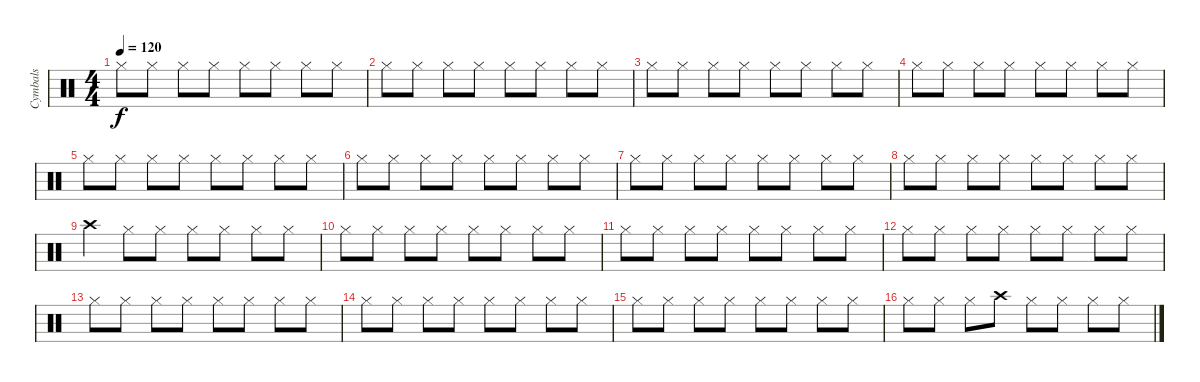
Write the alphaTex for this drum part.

\track ("Cymbals" "Cymbals") {instrument percussion}
\staff {score}
\articulation defaults
\ts (4 4)
\tempo 120
\clef neutral
\ks c "Hi-Hat (closed)".8{dy f} "Hi-Hat (closed)".8 "Hi-Hat (closed)".8 "Hi-Hat (closed)".8 "Hi-Hat (closed)".8 "Hi-Hat (closed)".8 "Hi-Hat (closed)".8 "Hi-Hat (closed)".8
|
"Hi-Hat (closed)".8 "Hi-Hat (closed)".8 "Hi-Hat (closed)".8 "Hi-Hat (closed)".8 "Hi-Hat (closed)".8 "Hi-Hat (closed)".8 "Hi-Hat (closed)".8 "Hi-Hat (closed)".8 |
"Hi-Hat (closed)".8 "Hi-Hat (closed)".8 "Hi-Hat (closed)".8 "Hi-Hat (closed)".8 "Hi-Hat (closed)".8 "Hi-Hat (closed)".8 "Hi-Hat (closed)".8 "Hi-Hat (closed)".8 |
"Hi-Hat (closed)".8 "Hi-Hat (closed)".8 "Hi-Hat (closed)".8 "Hi-Hat (closed)".8 "Hi-Hat (closed)".8 "Hi-Hat (closed)".8 "Hi-Hat (closed)".8 "Hi-Hat (closed)".8 |
"Hi-Hat (closed)".8 "Hi-Hat (closed)".8 "Hi-Hat (closed)".8 "Hi-Hat (closed)".8 "Hi-Hat (closed)".8 "Hi-Hat (closed)".8 "Hi-Hat (closed)".8 "Hi-Hat (closed)".8 |
"Hi-Hat (closed)".8 "Hi-Hat (closed)".8 "Hi-Hat (closed)".8 "Hi-Hat (closed)".8 "Hi-Hat (closed)".8 "Hi-Hat (closed)".8 "Hi-Hat (closed)".8 "Hi-Hat (closed)".8 |
"Hi-Hat (closed)".8 "Hi-Hat (closed)".8 "Hi-Hat (closed)".8 "Hi-Hat (closed)".8 "Hi-Hat (closed)".8 "Hi-Hat (closed)".8 "Hi-Hat (closed)".8 "Hi-Hat (closed)".8 |
"Hi-Hat (closed)".8 "Hi-Hat (closed)".8 "Hi-Hat (closed)".8 "Hi-Hat (closed)".8 "Hi-Hat (closed)".8 "Hi-Hat (closed)".8 "Hi-Hat (closed)".8 "Hi-Hat (closed)".8 |
"Crash high (hit)".4 "Hi-Hat (closed)".8 "Hi-Hat (closed)".8 "Hi-Hat (closed)".8 "Hi-Hat (closed)".8 "Hi-Hat (closed)".8 "Hi-Hat (closed)".8 |
"Hi-Hat (closed)".8 "Hi-Hat (closed)".8 "Hi-Hat (closed)".8 "Hi-Hat (closed)".8 "Hi-Hat (closed)".8 "Hi-Hat (closed)".8 "Hi-Hat (closed)".8 "Hi-Hat (closed)".8 |
"Hi-Hat (closed)".8 "Hi-Hat (closed)".8 "Hi-Hat (closed)".8 "Hi-Hat (closed)".8 "Hi-Hat (closed)".8 "Hi-Hat (closed)".8 "Hi-Hat (closed)".8 "Hi-Hat (closed)".8 |
"Hi-Hat (closed)".8 "Hi-Hat (closed)".8 "Hi-Hat (closed)".8 "Hi-Hat (closed)".8 "Hi-Hat (closed)".8 "Hi-Hat (closed)".8 "Hi-Hat (closed)".8 "Hi-Hat (closed)".8 |
"Hi-Hat (closed)".8 "Hi-Hat (closed)".8 "Hi-Hat (closed)".8 "Hi-Hat (closed)".8 "Hi-Hat (closed)".8 "Hi-Hat (closed)".8 "Hi-Hat (closed)".8 "Hi-Hat (closed)".8 |
"Hi-Hat (closed)".8 "Hi-Hat (closed)".8 "Hi-Hat (closed)".8 "Hi-Hat (closed)".8 "Hi-Hat (closed)".8 "Hi-Hat (closed)".8 "Hi-Hat (closed)".8 "Hi-Hat (closed)".8 |
"Hi-Hat (closed)".8 "Hi-Hat (closed)".8 "Hi-Hat (closed)".8 "Hi-Hat (closed)".8 "Hi-Hat (closed)".8 "Hi-Hat (closed)".8 "Hi-Hat (closed)".8 "Hi-Hat (closed)".8 |
"Hi-Hat (closed)".8 "Hi-Hat (closed)".8 "Hi-Hat (closed)".8 "Crash high (hit)".8 "Hi-Hat (closed)".8 "Hi-Hat (closed)".8 "Hi-Hat (closed)".8 "Hi-Hat (closed)".8
